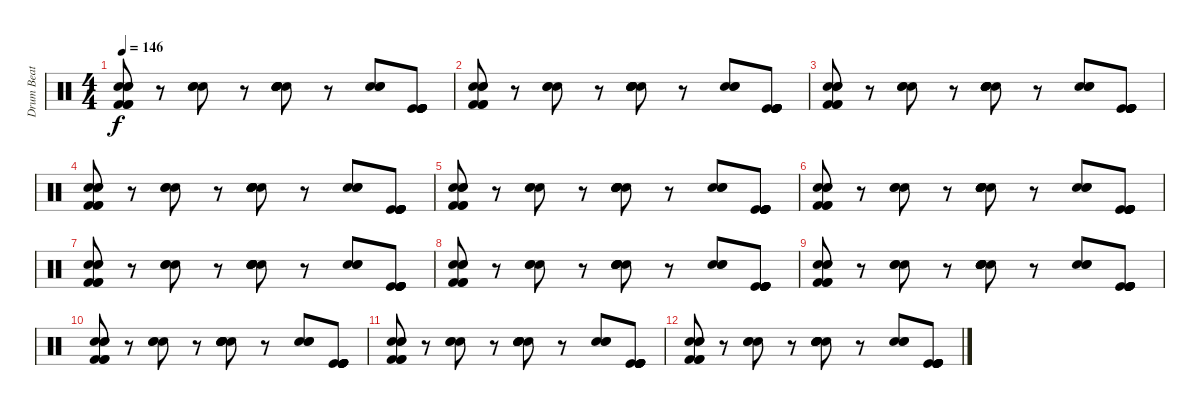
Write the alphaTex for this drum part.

\track ("Drum Beat" "Drum Beat") {instrument percussion}
\staff {score}
\articulation defaults
\ts (4 4)
\tempo 146
\clef neutral
\ks c
("Hand Clap (hit)" "Hand Clap (hit)" "Hand Clap (hit)" "Kick (hit) 2" "Kick (hit) 2" "Kick (hit) 2").8{dy f} r.8 ("Hand Clap (hit)" "Hand Clap (hit)" "Hand Clap (hit)").8 r.8 ("Hand Clap (hit)" "Hand Clap (hit)" "Hand Clap (hit)" "Electric Snare (hit)" "Electric Snare (hit)" "Electric Snare (hit)").8 r.8 ("Hand Clap (hit)" "Hand Clap (hit)" "Hand Clap (hit)").8 ("Kick (hit)" "Kick (hit)" "Kick (hit)" "Kick (hit)" "Kick (hit)" "Kick (hit)").8 |
("Hand Clap (hit)" "Hand Clap (hit)" "Hand Clap (hit)" "Kick (hit) 2" "Kick (hit) 2" "Kick (hit) 2").8 r.8 ("Hand Clap (hit)" "Hand Clap (hit)" "Hand Clap (hit)").8 r.8 ("Hand Clap (hit)" "Hand Clap (hit)" "Hand Clap (hit)" "Electric Snare (hit)" "Electric Snare (hit)" "Electric Snare (hit)").8 r.8 ("Hand Clap (hit)" "Hand Clap (hit)" "Hand Clap (hit)").8 ("Kick (hit)" "Kick (hit)" "Kick (hit)" "Kick (hit)" "Kick (hit)" "Kick (hit)").8 |
("Hand Clap (hit)" "Hand Clap (hit)" "Hand Clap (hit)" "Kick (hit) 2" "Kick (hit) 2" "Kick (hit) 2").8 r.8 ("Hand Clap (hit)" "Hand Clap (hit)" "Hand Clap (hit)").8 r.8 ("Hand Clap (hit)" "Hand Clap (hit)" "Hand Clap (hit)" "Electric Snare (hit)" "Electric Snare (hit)" "Electric Snare (hit)").8 r.8 ("Hand Clap (hit)" "Hand Clap (hit)" "Hand Clap (hit)").8 ("Kick (hit)" "Kick (hit)" "Kick (hit)" "Kick (hit)" "Kick (hit)" "Kick (hit)").8 |
("Hand Clap (hit)" "Hand Clap (hit)" "Hand Clap (hit)" "Kick (hit) 2" "Kick (hit) 2" "Kick (hit) 2").8 r.8 ("Hand Clap (hit)" "Hand Clap (hit)" "Hand Clap (hit)").8 r.8 ("Hand Clap (hit)" "Hand Clap (hit)" "Hand Clap (hit)" "Electric Snare (hit)" "Electric Snare (hit)" "Electric Snare (hit)").8 r.8 ("Hand Clap (hit)" "Hand Clap (hit)" "Hand Clap (hit)").8 ("Kick (hit)" "Kick (hit)" "Kick (hit)" "Kick (hit)" "Kick (hit)" "Kick (hit)").8 |
("Hand Clap (hit)" "Hand Clap (hit)" "Hand Clap (hit)" "Kick (hit) 2" "Kick (hit) 2" "Kick (hit) 2").8 r.8 ("Hand Clap (hit)" "Hand Clap (hit)" "Hand Clap (hit)").8 r.8 ("Hand Clap (hit)" "Hand Clap (hit)" "Hand Clap (hit)" "Electric Snare (hit)" "Electric Snare (hit)" "Electric Snare (hit)").8 r.8 ("Hand Clap (hit)" "Hand Clap (hit)" "Hand Clap (hit)").8 ("Kick (hit)" "Kick (hit)" "Kick (hit)" "Kick (hit)" "Kick (hit)" "Kick (hit)").8 |
("Hand Clap (hit)" "Hand Clap (hit)" "Hand Clap (hit)" "Kick (hit) 2" "Kick (hit) 2" "Kick (hit) 2").8 r.8 ("Hand Clap (hit)" "Hand Clap (hit)" "Hand Clap (hit)").8 r.8 ("Hand Clap (hit)" "Hand Clap (hit)" "Hand Clap (hit)" "Electric Snare (hit)" "Electric Snare (hit)" "Electric Snare (hit)").8 r.8 ("Hand Clap (hit)" "Hand Clap (hit)" "Hand Clap (hit)").8 ("Kick (hit)" "Kick (hit)" "Kick (hit)" "Kick (hit)" "Kick (hit)" "Kick (hit)").8 |
("Hand Clap (hit)" "Hand Clap (hit)" "Hand Clap (hit)" "Kick (hit) 2" "Kick (hit) 2" "Kick (hit) 2").8 r.8 ("Hand Clap (hit)" "Hand Clap (hit)" "Hand Clap (hit)").8 r.8 ("Hand Clap (hit)" "Hand Clap (hit)" "Hand Clap (hit)" "Electric Snare (hit)" "Electric Snare (hit)" "Electric Snare (hit)").8 r.8 ("Hand Clap (hit)" "Hand Clap (hit)" "Hand Clap (hit)").8 ("Kick (hit)" "Kick (hit)" "Kick (hit)" "Kick (hit)" "Kick (hit)" "Kick (hit)").8 |
("Hand Clap (hit)" "Hand Clap (hit)" "Hand Clap (hit)" "Kick (hit) 2" "Kick (hit) 2" "Kick (hit) 2").8 r.8 ("Hand Clap (hit)" "Hand Clap (hit)" "Hand Clap (hit)").8 r.8 ("Hand Clap (hit)" "Hand Clap (hit)" "Hand Clap (hit)" "Electric Snare (hit)" "Electric Snare (hit)" "Electric Snare (hit)").8 r.8 ("Hand Clap (hit)" "Hand Clap (hit)" "Hand Clap (hit)").8 ("Kick (hit)" "Kick (hit)" "Kick (hit)" "Kick (hit)" "Kick (hit)" "Kick (hit)").8 |
("Hand Clap (hit)" "Hand Clap (hit)" "Hand Clap (hit)" "Kick (hit) 2" "Kick (hit) 2" "Kick (hit) 2").8 r.8 ("Hand Clap (hit)" "Hand Clap (hit)" "Hand Clap (hit)").8 r.8 ("Hand Clap (hit)" "Hand Clap (hit)" "Hand Clap (hit)" "Electric Snare (hit)" "Electric Snare (hit)" "Electric Snare (hit)").8 r.8 ("Hand Clap (hit)" "Hand Clap (hit)" "Hand Clap (hit)").8 ("Kick (hit)" "Kick (hit)" "Kick (hit)" "Kick (hit)" "Kick (hit)" "Kick (hit)").8 |
("Hand Clap (hit)" "Hand Clap (hit)" "Hand Clap (hit)" "Kick (hit) 2" "Kick (hit) 2" "Kick (hit) 2").8 r.8 ("Hand Clap (hit)" "Hand Clap (hit)" "Hand Clap (hit)").8 r.8 ("Hand Clap (hit)" "Hand Clap (hit)" "Hand Clap (hit)" "Electric Snare (hit)" "Electric Snare (hit)" "Electric Snare (hit)").8 r.8 ("Hand Clap (hit)" "Hand Clap (hit)" "Hand Clap (hit)").8 ("Kick (hit)" "Kick (hit)" "Kick (hit)" "Kick (hit)" "Kick (hit)" "Kick (hit)").8 |
("Hand Clap (hit)" "Hand Clap (hit)" "Hand Clap (hit)" "Kick (hit) 2" "Kick (hit) 2" "Kick (hit) 2").8 r.8 ("Hand Clap (hit)" "Hand Clap (hit)" "Hand Clap (hit)").8 r.8 ("Hand Clap (hit)" "Hand Clap (hit)" "Hand Clap (hit)" "Electric Snare (hit)" "Electric Snare (hit)" "Electric Snare (hit)").8 r.8 ("Hand Clap (hit)" "Hand Clap (hit)" "Hand Clap (hit)").8 ("Kick (hit)" "Kick (hit)" "Kick (hit)" "Kick (hit)" "Kick (hit)" "Kick (hit)").8 |
("Hand Clap (hit)" "Hand Clap (hit)" "Hand Clap (hit)" "Kick (hit) 2" "Kick (hit) 2" "Kick (hit) 2").8 r.8 ("Hand Clap (hit)" "Hand Clap (hit)" "Hand Clap (hit)").8 r.8 ("Hand Clap (hit)" "Hand Clap (hit)" "Hand Clap (hit)" "Electric Snare (hit)" "Electric Snare (hit)" "Electric Snare (hit)").8 r.8 ("Hand Clap (hit)" "Hand Clap (hit)" "Hand Clap (hit)").8 ("Kick (hit)" "Kick (hit)" "Kick (hit)" "Kick (hit)" "Kick (hit)" "Kick (hit)").8
